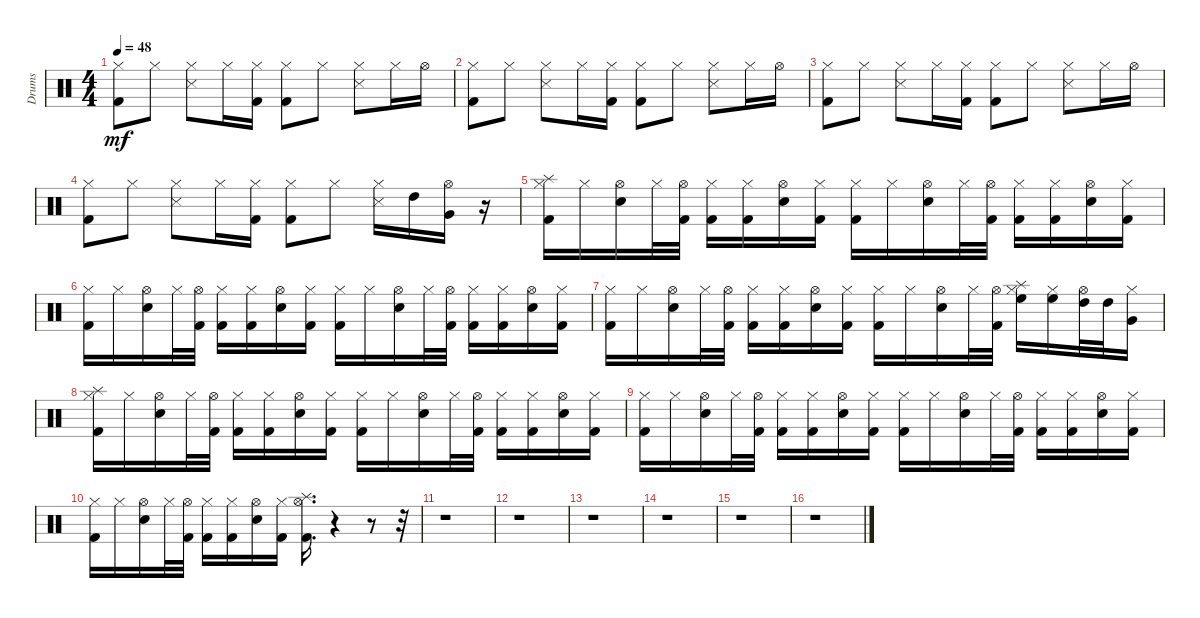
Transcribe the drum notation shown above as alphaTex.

\track ("Drums" "Drums") {instrument percussion}
\staff {score}
\articulation defaults
\ts (4 4)
\tempo 48
\clef neutral
\ks c
("Hi-Hat (closed)" "Kick (hit) 2").8{dy mf} "Hi-Hat (closed)".8 ("Hi-Hat (closed)" "Snare (side stick) 3").8 "Hi-Hat (closed)".16 ("Kick (hit) 2" "Hi-Hat (closed)").16 ("Hi-Hat (closed)" "Kick (hit) 2").8 "Hi-Hat (closed)".8 ("Snare (side stick) 3" "Hi-Hat (closed)").8 "Hi-Hat (closed)".16 "Hi-Hat (open)".16 |
("Kick (hit) 2" "Hi-Hat (closed)").8 "Hi-Hat (closed)".8 ("Hi-Hat (closed)" "Snare (side stick) 3").8 "Hi-Hat (closed)".16 ("Hi-Hat (closed)" "Kick (hit) 2").16 ("Hi-Hat (closed)" "Kick (hit) 2").8 "Hi-Hat (closed)".8 ("Snare (side stick) 3" "Hi-Hat (closed)").8 "Hi-Hat (closed)".16 "Hi-Hat (open)".16 |
("Kick (hit) 2" "Hi-Hat (closed)").8 "Hi-Hat (closed)".8 ("Hi-Hat (closed)" "Snare (side stick) 3").8 "Hi-Hat (closed)".16 ("Hi-Hat (closed)" "Kick (hit) 2").16 ("Hi-Hat (closed)" "Kick (hit) 2").8 "Hi-Hat (closed)".8 ("Snare (side stick) 3" "Hi-Hat (closed)").8 "Hi-Hat (closed)".16 "Hi-Hat (open)".16 |
("Kick (hit) 2" "Hi-Hat (closed)").8 "Hi-Hat (closed)".8 ("Hi-Hat (closed)" "Snare (side stick) 3").8 "Hi-Hat (closed)".16 ("Kick (hit) 2" "Hi-Hat (closed)").16 ("Hi-Hat (closed)" "Kick (hit) 2").8 "Hi-Hat (closed)".8 ("Snare (side stick) 3" "Hi-Hat (closed)").16 "High Tom (hit)".16 ("Very Low Tom (hit)" "Hi-Hat (open)").16 r.16 |
("Splash (hit)" "Kick (hit) 2" "Hi-Hat (closed)").16 "Hi-Hat (closed)".16 ("Snare (hit) 2" "Hi-Hat (open)").16 "Hi-Hat (closed)".32 ("Hi-Hat (open)" "Kick (hit) 2").32 ("Hi-Hat (closed)" "Kick (hit) 2").16 ("Kick (hit) 2" "Hi-Hat (closed)").16 ("Hi-Hat (open)" "Snare (hit) 2").16 ("Kick (hit) 2" "Hi-Hat (closed)").16 ("Kick (hit) 2" "Hi-Hat (closed)").16 "Hi-Hat (closed)".16 ("Hi-Hat (open)" "Snare (hit) 2").16 "Hi-Hat (closed)".32 ("Hi-Hat (open)" "Kick (hit) 2").32 ("Hi-Hat (closed)" "Kick (hit) 2").16 ("Kick (hit) 2" "Hi-Hat (closed)").16 ("Snare (hit) 2" "Hi-Hat (open)").16 ("Hi-Hat (closed)" "Kick (hit) 2").16 |
("Kick (hit) 2" "Hi-Hat (closed)").16 "Hi-Hat (closed)".16 ("Snare (hit) 2" "Hi-Hat (open)").16 "Hi-Hat (closed)".32 ("Kick (hit) 2" "Hi-Hat (open)").32 ("Kick (hit) 2" "Hi-Hat (closed)").16 ("Hi-Hat (closed)" "Kick (hit) 2").16 ("Hi-Hat (open)" "Snare (hit) 2").16 ("Kick (hit) 2" "Hi-Hat (closed)").16 ("Kick (hit) 2" "Hi-Hat (closed)").16 "Hi-Hat (closed)".16 ("Snare (hit) 2" "Hi-Hat (open)").16 "Hi-Hat (closed)".32 ("Hi-Hat (open)" "Kick (hit) 2").32 ("Hi-Hat (closed)" "Kick (hit) 2").16 ("Hi-Hat (closed)" "Kick (hit) 2").16 ("Snare (hit) 2" "Hi-Hat (open)").16 ("Kick (hit) 2" "Hi-Hat (closed)").16 |
("Kick (hit) 2" "Hi-Hat (closed)").16 "Hi-Hat (closed)".16 ("Hi-Hat (open)" "Snare (hit) 2").16 "Hi-Hat (closed)".32 ("Kick (hit) 2" "Hi-Hat (open)").32 ("Kick (hit) 2" "Hi-Hat (closed)").16 ("Kick (hit) 2" "Hi-Hat (closed)").16 ("Hi-Hat (open)" "Snare (hit) 2").16 ("Kick (hit) 2" "Hi-Hat (closed)").16 ("Kick (hit) 2" "Hi-Hat (closed)").16 "Hi-Hat (closed)".16 ("Hi-Hat (open)" "Snare (hit) 2").16 "Hi-Hat (closed)".32 ("Kick (hit) 2" "Hi-Hat (open)").32 ("Hi-Hat (closed)" "High Floor Tom (hit)" "Splash (hit)").16 ("High Floor Tom (hit)" "Hi-Hat (closed)").16 ("Hi-Hat (open)" "High Tom (hit)").32 "High Tom (hit)".32 ("Hi-Hat (closed)" "Very Low Tom (hit)").16 |
("Hi-Hat (closed)" "Kick (hit) 2" "Splash (hit)").16 "Hi-Hat (closed)".16 ("Snare (hit) 2" "Hi-Hat (open)").16 "Hi-Hat (closed)".32 ("Kick (hit) 2" "Hi-Hat (open)").32 ("Hi-Hat (closed)" "Kick (hit) 2").16 ("Kick (hit) 2" "Hi-Hat (closed)").16 ("Snare (hit) 2" "Hi-Hat (open)").16 ("Hi-Hat (closed)" "Kick (hit) 2").16 ("Kick (hit) 2" "Hi-Hat (closed)").16 "Hi-Hat (closed)".16 ("Hi-Hat (open)" "Snare (hit) 2").16 "Hi-Hat (closed)".32 ("Hi-Hat (open)" "Kick (hit) 2").32 ("Hi-Hat (closed)" "Kick (hit) 2").16 ("Hi-Hat (closed)" "Kick (hit) 2").16 ("Hi-Hat (open)" "Snare (hit) 2").16 ("Kick (hit) 2" "Hi-Hat (closed)").16 |
("Hi-Hat (closed)" "Kick (hit) 2").16 "Hi-Hat (closed)".16 ("Snare (hit) 2" "Hi-Hat (open)").16 "Hi-Hat (closed)".32 ("Kick (hit) 2" "Hi-Hat (open)").32 ("Kick (hit) 2" "Hi-Hat (closed)").16 ("Hi-Hat (closed)" "Kick (hit) 2").16 ("Snare (hit) 2" "Hi-Hat (open)").16 ("Hi-Hat (closed)" "Kick (hit) 2").16 ("Hi-Hat (closed)" "Kick (hit) 2").16 "Hi-Hat (closed)".16 ("Snare (hit) 2" "Hi-Hat (open)").16 "Hi-Hat (closed)".32 ("Kick (hit) 2" "Hi-Hat (open)").32 ("Hi-Hat (closed)" "Kick (hit) 2").16 ("Kick (hit) 2" "Hi-Hat (closed)").16 ("Snare (hit) 2" "Hi-Hat (open)").16 ("Hi-Hat (closed)" "Kick (hit) 2").16 |
("Kick (hit) 2" "Hi-Hat (closed)").16 "Hi-Hat (closed)".16 ("Hi-Hat (open)" "Snare (hit) 2").16 "Hi-Hat (closed)".32 ("Hi-Hat (open)" "Kick (hit) 2").32 ("Hi-Hat (closed)" "Kick (hit) 2").16 ("Hi-Hat (closed)" "Kick (hit) 2").16 ("Snare (hit) 2" "Hi-Hat (open)").16 ("Kick (hit) 2" "Hi-Hat (closed)").16 ("Hi-Hat (open)" "Kick (hit) 2" "Splash (hit)").16{d} r.4 r.8 r.32 |
r.1 |
r.1 |
r.1 |
r.1 |
r.1 |
r.1
